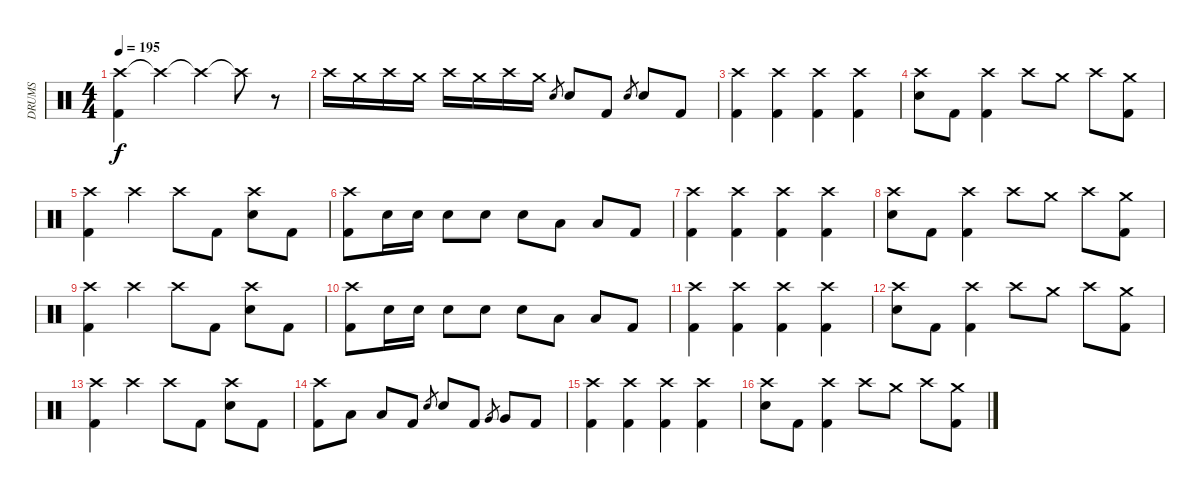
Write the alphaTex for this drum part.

\track ("DRUMS" "DRUMS") {instrument percussion}
\staff {score}
\articulation defaults
\ts (4 4)
\tempo 195
\clef neutral
\ks c
("Crash high (hit)" "Kick (hit) 2").4{dy f} "Crash high (hit)"{t}.4 "Crash high (hit)"{t}.4 "Crash high (hit)"{t}.8 r.8{volume 5} |
"Crash high (hit)".16{volume 16} "Crash medium (hit)".16 "Crash high (hit)".16 "Crash medium (hit)".16 "Crash high (hit)".16 "Crash medium (hit)".16 "Crash high (hit)".16 "Crash medium (hit)".16 "Electric Snare (hit)".8{gr} "Electric Snare (hit)".8 "Kick (hit) 2".8 "Electric Snare (hit)".8{gr} "Electric Snare (hit)".8 "Kick (hit) 2".8 |
("Crash high (hit)" "Kick (hit) 2").4 ("Crash high (hit)" "Kick (hit) 2").4 ("Crash high (hit)" "Kick (hit) 2").4 ("Crash high (hit)" "Kick (hit) 2").4 |
("Crash high (hit)" "Electric Snare (hit)").8 "Kick (hit) 2".8 ("Crash high (hit)" "Kick (hit) 2").4 "Crash high (hit)".8 "Crash medium (hit)".8 "Crash high (hit)".8 ("Crash medium (hit)" "Kick (hit) 2").8 |
("Crash high (hit)" "Kick (hit) 2").4 "Crash high (hit)".4 "Crash high (hit)".8 "Kick (hit) 2".8 ("Crash high (hit)" "Electric Snare (hit)").8 "Kick (hit) 2".8 |
("Crash high (hit)" "Kick (hit) 2").8 "Electric Snare (hit)".16 "Electric Snare (hit)".16 "Electric Snare (hit)".8 "Electric Snare (hit)".8 "Electric Snare (hit)".8 "Low Tom (hit)".8 "Low Floor Tom (hit)".8 "Kick (hit) 2".8 |
("Crash high (hit)" "Kick (hit) 2").4 ("Crash high (hit)" "Kick (hit) 2").4 ("Crash high (hit)" "Kick (hit) 2").4 ("Crash high (hit)" "Kick (hit) 2").4 |
("Crash high (hit)" "Electric Snare (hit)").8 "Kick (hit) 2".8 ("Crash high (hit)" "Kick (hit) 2").4 "Crash high (hit)".8 "Crash medium (hit)".8 "Crash high (hit)".8 ("Crash medium (hit)" "Kick (hit) 2").8 |
("Crash high (hit)" "Kick (hit) 2").4 "Crash high (hit)".4 "Crash high (hit)".8 "Kick (hit) 2".8 ("Crash high (hit)" "Electric Snare (hit)").8 "Kick (hit) 2".8 |
("Crash high (hit)" "Kick (hit) 2").8 "Electric Snare (hit)".16 "Electric Snare (hit)".16 "Electric Snare (hit)".8 "Electric Snare (hit)".8 "Electric Snare (hit)".8 "Low Tom (hit)".8 "Low Floor Tom (hit)".8 "Kick (hit) 2".8 |
("Crash high (hit)" "Kick (hit) 2").4 ("Crash high (hit)" "Kick (hit) 2").4 ("Crash high (hit)" "Kick (hit) 2").4 ("Crash high (hit)" "Kick (hit) 2").4 |
("Crash high (hit)" "Electric Snare (hit)").8 "Kick (hit) 2".8 ("Crash high (hit)" "Kick (hit) 2").4 "Crash high (hit)".8 "Crash medium (hit)".8 "Crash high (hit)".8 ("Crash medium (hit)" "Kick (hit) 2").8 |
("Crash high (hit)" "Kick (hit) 2").4 "Crash high (hit)".4 "Crash high (hit)".8 "Kick (hit) 2".8 ("Crash high (hit)" "Electric Snare (hit)").8 "Kick (hit) 2".8 |
("Crash high (hit)" "Kick (hit) 2").8 "Low Tom (hit)".8 "Low Tom (hit)".8 "Kick (hit) 2".8 "Electric Snare (hit)".8{gr} "Electric Snare (hit)".8 "Kick (hit) 2".8 "Very Low Tom (hit)".8{gr} "Very Low Tom (hit)".8 "Kick (hit) 2".8 |
("Crash high (hit)" "Kick (hit) 2").4 ("Crash high (hit)" "Kick (hit) 2").4 ("Crash high (hit)" "Kick (hit) 2").4 ("Crash high (hit)" "Kick (hit) 2").4 |
("Crash high (hit)" "Electric Snare (hit)").8 "Kick (hit) 2".8 ("Crash high (hit)" "Kick (hit) 2").4 "Crash high (hit)".8 "Crash medium (hit)".8 "Crash high (hit)".8 ("Crash medium (hit)" "Kick (hit) 2").8
